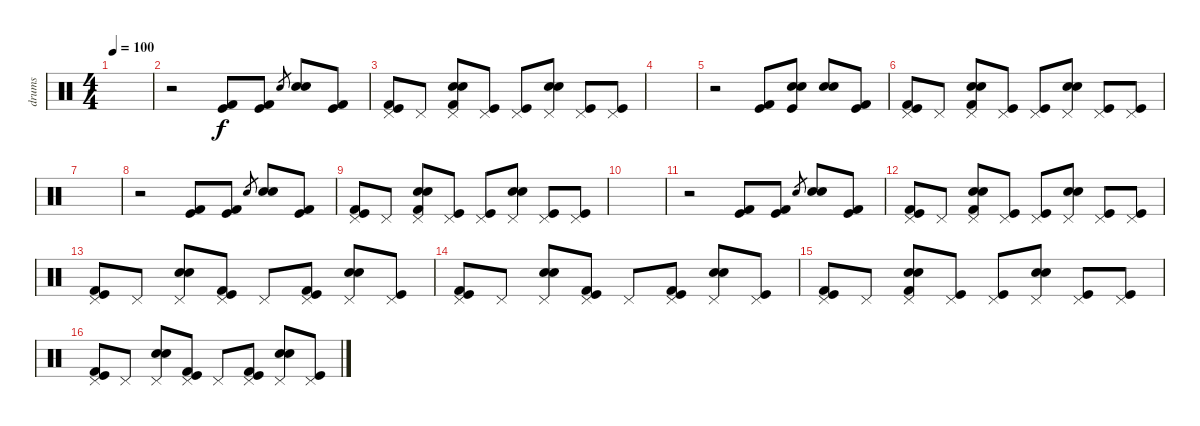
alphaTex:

\track ("drums" "drums") {instrument percussion}
\staff {score}
\articulation defaults
\ts (4 4)
\tempo 100
\clef neutral
\ks c
|
r.2 ("Kick (hit) 2" "Kick (hit)").8 ("Kick (hit) 2" "Kick (hit)").8 "Electric Snare (hit)"{sl}.8{gr} ("Electric Snare (hit)" "Snare (hit) 2").8 ("Kick (hit)" "Kick (hit) 2").8 |
("Pedal Hi-Hat (hit)" "Kick (hit) 2" "Kick (hit)").8 "Pedal Hi-Hat (hit)".8 ("Pedal Hi-Hat (hit)" "Electric Snare (hit)" "Snare (hit) 2" "Kick (hit) 2").8 ("Pedal Hi-Hat (hit)" "Kick (hit)").8 ("Pedal Hi-Hat (hit)" "Kick (hit)").8 ("Pedal Hi-Hat (hit)" "Electric Snare (hit)" "Snare (hit) 2").8 ("Pedal Hi-Hat (hit)" "Kick (hit)").8 ("Pedal Hi-Hat (hit)" "Kick (hit)").8 |
|
r.2 ("Kick (hit)" "Kick (hit) 2").8 ("Electric Snare (hit)" "Snare (hit) 2" "Kick (hit)").8 ("Electric Snare (hit)" "Snare (hit) 2").8 ("Kick (hit)" "Kick (hit) 2").8 |
("Pedal Hi-Hat (hit)" "Kick (hit) 2" "Kick (hit)").8 "Pedal Hi-Hat (hit)".8 ("Pedal Hi-Hat (hit)" "Electric Snare (hit)" "Snare (hit) 2" "Kick (hit) 2").8 ("Pedal Hi-Hat (hit)" "Kick (hit)").8 ("Pedal Hi-Hat (hit)" "Kick (hit)").8 ("Pedal Hi-Hat (hit)" "Electric Snare (hit)" "Snare (hit) 2").8 ("Pedal Hi-Hat (hit)" "Kick (hit)").8 ("Pedal Hi-Hat (hit)" "Kick (hit)").8 |
|
r.2 ("Kick (hit) 2" "Kick (hit)").8 ("Kick (hit) 2" "Kick (hit)").8 "Electric Snare (hit)"{sl}.8{gr} ("Electric Snare (hit)" "Snare (hit) 2").8 ("Kick (hit)" "Kick (hit) 2").8 |
("Pedal Hi-Hat (hit)" "Kick (hit) 2" "Kick (hit)").8 "Pedal Hi-Hat (hit)".8 ("Pedal Hi-Hat (hit)" "Electric Snare (hit)" "Snare (hit) 2" "Kick (hit) 2").8 ("Pedal Hi-Hat (hit)" "Kick (hit)").8 ("Pedal Hi-Hat (hit)" "Kick (hit)").8 ("Pedal Hi-Hat (hit)" "Electric Snare (hit)" "Snare (hit) 2").8 ("Pedal Hi-Hat (hit)" "Kick (hit)").8 ("Pedal Hi-Hat (hit)" "Kick (hit)").8 |
|
r.2 ("Kick (hit) 2" "Kick (hit)").8 ("Kick (hit) 2" "Kick (hit)").8 "Electric Snare (hit)"{sl}.8{gr} ("Electric Snare (hit)" "Snare (hit) 2").8 ("Kick (hit)" "Kick (hit) 2").8 |
("Pedal Hi-Hat (hit)" "Kick (hit) 2" "Kick (hit)").8 "Pedal Hi-Hat (hit)".8 ("Pedal Hi-Hat (hit)" "Electric Snare (hit)" "Snare (hit) 2" "Kick (hit) 2").8 ("Pedal Hi-Hat (hit)" "Kick (hit)").8 ("Pedal Hi-Hat (hit)" "Kick (hit)").8 ("Pedal Hi-Hat (hit)" "Electric Snare (hit)" "Snare (hit) 2").8 ("Pedal Hi-Hat (hit)" "Kick (hit)").8 ("Pedal Hi-Hat (hit)" "Kick (hit)").8 |
("Pedal Hi-Hat (hit)" "Kick (hit) 2" "Kick (hit)").8 "Pedal Hi-Hat (hit)".8 ("Pedal Hi-Hat (hit)" "Electric Snare (hit)" "Snare (hit) 2").8 ("Pedal Hi-Hat (hit)" "Kick (hit) 2" "Kick (hit)").8 "Pedal Hi-Hat (hit)".8 ("Pedal Hi-Hat (hit)" "Kick (hit) 2" "Kick (hit)").8 ("Pedal Hi-Hat (hit)" "Electric Snare (hit)" "Snare (hit) 2").8 ("Pedal Hi-Hat (hit)" "Kick (hit)").8 |
("Pedal Hi-Hat (hit)" "Kick (hit) 2" "Kick (hit)").8 "Pedal Hi-Hat (hit)".8 ("Pedal Hi-Hat (hit)" "Electric Snare (hit)" "Snare (hit) 2").8 ("Pedal Hi-Hat (hit)" "Kick (hit) 2" "Kick (hit)").8 "Pedal Hi-Hat (hit)".8 ("Pedal Hi-Hat (hit)" "Kick (hit) 2" "Kick (hit)").8 ("Pedal Hi-Hat (hit)" "Electric Snare (hit)" "Snare (hit) 2").8 ("Pedal Hi-Hat (hit)" "Kick (hit)").8 |
("Pedal Hi-Hat (hit)" "Kick (hit) 2" "Kick (hit)").8 "Pedal Hi-Hat (hit)".8 ("Pedal Hi-Hat (hit)" "Electric Snare (hit)" "Snare (hit) 2" "Kick (hit) 2").8 ("Pedal Hi-Hat (hit)" "Kick (hit)").8 ("Pedal Hi-Hat (hit)" "Kick (hit)").8 ("Pedal Hi-Hat (hit)" "Electric Snare (hit)" "Snare (hit) 2").8 ("Pedal Hi-Hat (hit)" "Kick (hit)").8 ("Pedal Hi-Hat (hit)" "Kick (hit)").8 |
("Pedal Hi-Hat (hit)" "Kick (hit) 2" "Kick (hit)").8 "Pedal Hi-Hat (hit)".8 ("Pedal Hi-Hat (hit)" "Electric Snare (hit)" "Snare (hit) 2").8 ("Pedal Hi-Hat (hit)" "Kick (hit) 2" "Kick (hit)").8 "Pedal Hi-Hat (hit)".8 ("Pedal Hi-Hat (hit)" "Kick (hit) 2" "Kick (hit)").8 ("Pedal Hi-Hat (hit)" "Electric Snare (hit)" "Snare (hit) 2").8 ("Pedal Hi-Hat (hit)" "Kick (hit)").8
